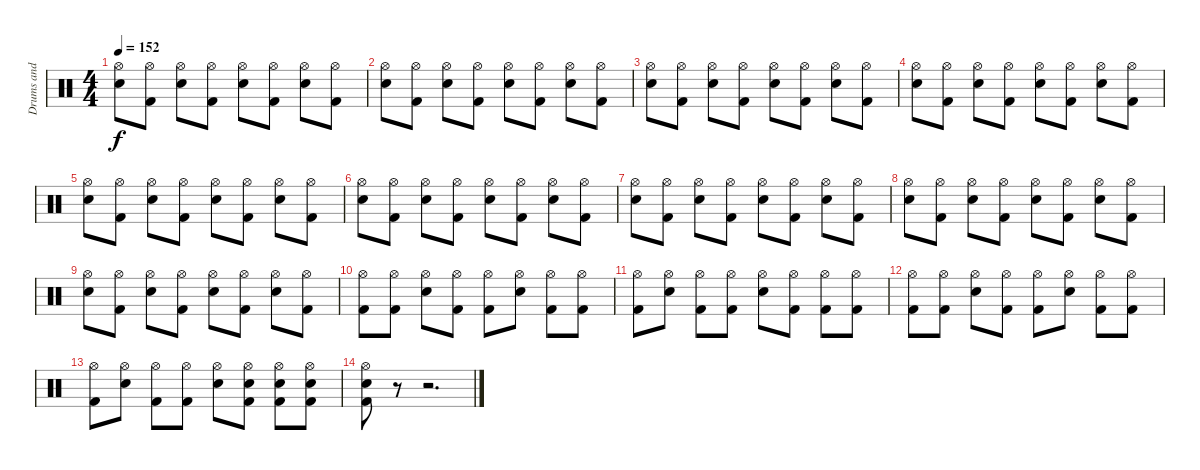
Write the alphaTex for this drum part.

\track ("Drums and Percussion" "Drums and ") {instrument percussion}
\staff {score}
\articulation defaults
\ts (4 4)
\tempo 152
\clef neutral
\ks c
("Hi-Hat (open)" "Electric Snare (hit)").8{dy f} ("Hi-Hat (open)" "Kick (hit) 2").8 ("Hi-Hat (open)" "Electric Snare (hit)").8 ("Hi-Hat (open)" "Kick (hit) 2").8 ("Hi-Hat (open)" "Electric Snare (hit)").8 ("Hi-Hat (open)" "Kick (hit) 2").8 ("Hi-Hat (open)" "Electric Snare (hit)").8 ("Hi-Hat (open)" "Kick (hit) 2").8 |
("Hi-Hat (open)" "Electric Snare (hit)").8 ("Hi-Hat (open)" "Kick (hit) 2").8 ("Hi-Hat (open)" "Electric Snare (hit)").8 ("Hi-Hat (open)" "Kick (hit) 2").8 ("Hi-Hat (open)" "Electric Snare (hit)").8 ("Hi-Hat (open)" "Kick (hit) 2").8 ("Hi-Hat (open)" "Electric Snare (hit)").8 ("Hi-Hat (open)" "Kick (hit) 2").8 |
("Hi-Hat (open)" "Electric Snare (hit)").8 ("Hi-Hat (open)" "Kick (hit) 2").8 ("Hi-Hat (open)" "Electric Snare (hit)").8 ("Hi-Hat (open)" "Kick (hit) 2").8 ("Hi-Hat (open)" "Electric Snare (hit)").8 ("Hi-Hat (open)" "Kick (hit) 2").8 ("Hi-Hat (open)" "Electric Snare (hit)").8 ("Hi-Hat (open)" "Kick (hit) 2").8 |
("Hi-Hat (open)" "Electric Snare (hit)").8 ("Hi-Hat (open)" "Kick (hit) 2").8 ("Hi-Hat (open)" "Electric Snare (hit)").8 ("Hi-Hat (open)" "Kick (hit) 2").8 ("Hi-Hat (open)" "Electric Snare (hit)").8 ("Hi-Hat (open)" "Kick (hit) 2").8 ("Hi-Hat (open)" "Electric Snare (hit)").8 ("Hi-Hat (open)" "Kick (hit) 2").8 |
("Hi-Hat (open)" "Electric Snare (hit)").8 ("Hi-Hat (open)" "Kick (hit) 2").8 ("Hi-Hat (open)" "Electric Snare (hit)").8 ("Hi-Hat (open)" "Kick (hit) 2").8 ("Hi-Hat (open)" "Electric Snare (hit)").8 ("Hi-Hat (open)" "Kick (hit) 2").8 ("Hi-Hat (open)" "Electric Snare (hit)").8 ("Hi-Hat (open)" "Kick (hit) 2").8 |
("Hi-Hat (open)" "Electric Snare (hit)").8 ("Hi-Hat (open)" "Kick (hit) 2").8 ("Hi-Hat (open)" "Electric Snare (hit)").8 ("Hi-Hat (open)" "Kick (hit) 2").8 ("Hi-Hat (open)" "Electric Snare (hit)").8 ("Hi-Hat (open)" "Kick (hit) 2").8 ("Hi-Hat (open)" "Electric Snare (hit)").8 ("Hi-Hat (open)" "Kick (hit) 2").8 |
("Hi-Hat (open)" "Electric Snare (hit)").8 ("Hi-Hat (open)" "Kick (hit) 2").8 ("Hi-Hat (open)" "Electric Snare (hit)").8 ("Hi-Hat (open)" "Kick (hit) 2").8 ("Hi-Hat (open)" "Electric Snare (hit)").8 ("Hi-Hat (open)" "Kick (hit) 2").8 ("Hi-Hat (open)" "Electric Snare (hit)").8 ("Hi-Hat (open)" "Kick (hit) 2").8 |
("Hi-Hat (open)" "Electric Snare (hit)").8 ("Hi-Hat (open)" "Kick (hit) 2").8 ("Hi-Hat (open)" "Electric Snare (hit)").8 ("Hi-Hat (open)" "Kick (hit) 2").8 ("Hi-Hat (open)" "Electric Snare (hit)").8 ("Hi-Hat (open)" "Kick (hit) 2").8 ("Hi-Hat (open)" "Electric Snare (hit)").8 ("Hi-Hat (open)" "Kick (hit) 2").8 |
("Hi-Hat (open)" "Electric Snare (hit)").8 ("Hi-Hat (open)" "Kick (hit) 2").8 ("Hi-Hat (open)" "Electric Snare (hit)").8 ("Hi-Hat (open)" "Kick (hit) 2").8 ("Hi-Hat (open)" "Electric Snare (hit)").8 ("Hi-Hat (open)" "Kick (hit) 2").8 ("Hi-Hat (open)" "Electric Snare (hit)").8 ("Hi-Hat (open)" "Kick (hit) 2").8 |
("Hi-Hat (open)" "Kick (hit) 2").8 ("Hi-Hat (open)" "Kick (hit) 2").8 ("Hi-Hat (open)" "Electric Snare (hit)").8 ("Hi-Hat (open)" "Kick (hit) 2").8 ("Hi-Hat (open)" "Kick (hit) 2").8 ("Hi-Hat (open)" "Electric Snare (hit)").8 ("Hi-Hat (open)" "Kick (hit) 2").8 ("Hi-Hat (open)" "Kick (hit) 2").8 |
("Hi-Hat (open)" "Kick (hit) 2").8 ("Hi-Hat (open)" "Electric Snare (hit)").8 ("Hi-Hat (open)" "Kick (hit) 2").8 ("Hi-Hat (open)" "Kick (hit) 2").8 ("Hi-Hat (open)" "Electric Snare (hit)").8 ("Hi-Hat (open)" "Kick (hit) 2").8 ("Hi-Hat (open)" "Kick (hit) 2").8 ("Hi-Hat (open)" "Kick (hit) 2").8 |
("Hi-Hat (open)" "Kick (hit) 2").8 ("Hi-Hat (open)" "Kick (hit) 2").8 ("Hi-Hat (open)" "Electric Snare (hit)").8 ("Hi-Hat (open)" "Kick (hit) 2").8 ("Hi-Hat (open)" "Kick (hit) 2").8 ("Hi-Hat (open)" "Electric Snare (hit)").8 ("Hi-Hat (open)" "Kick (hit) 2").8 ("Hi-Hat (open)" "Kick (hit) 2").8 |
("Hi-Hat (open)" "Kick (hit) 2").8 ("Hi-Hat (open)" "Electric Snare (hit)").8 ("Hi-Hat (open)" "Kick (hit) 2").8 ("Hi-Hat (open)" "Kick (hit) 2").8 ("Hi-Hat (open)" "Electric Snare (hit)").8 ("Hi-Hat (open)" "Electric Snare (hit)" "Kick (hit) 2").8 ("Hi-Hat (open)" "Electric Snare (hit)" "Kick (hit) 2").8 ("Hi-Hat (open)" "Electric Snare (hit)" "Kick (hit) 2").8 |
("Hi-Hat (open)" "Electric Snare (hit)" "Kick (hit) 2").8 r.8 r.2{d}
